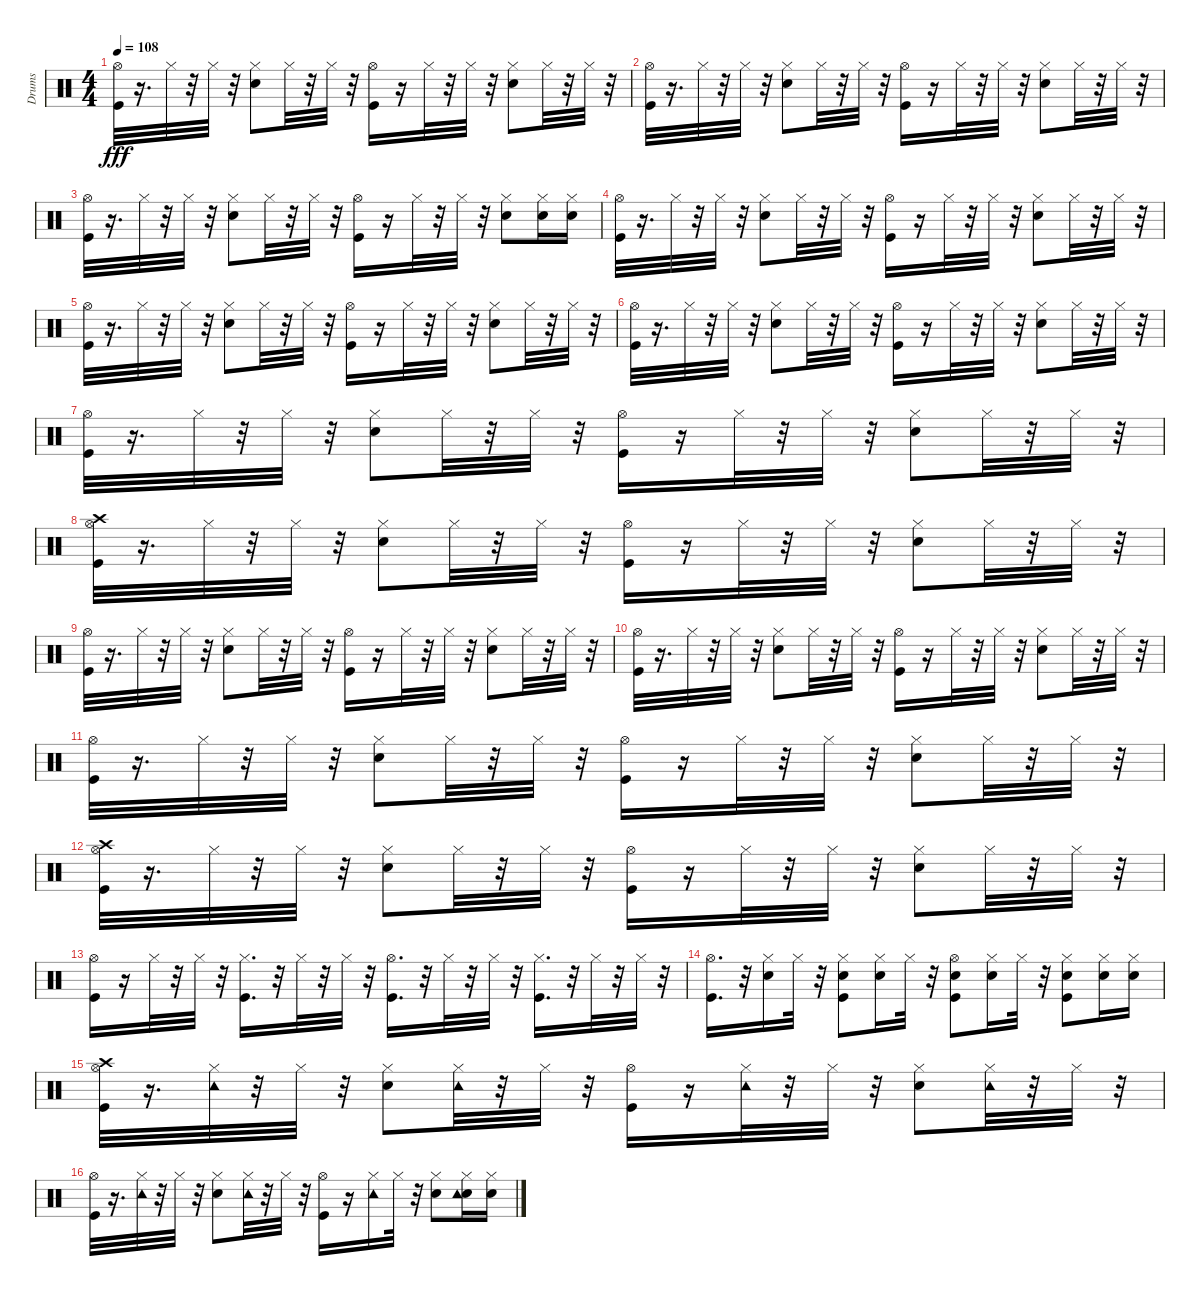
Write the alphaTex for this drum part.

\track ("Drums               " "Drums     ") {instrument percussion}
\staff {score}
\articulation defaults
\ts (4 4)
\tempo 108
\clef neutral
\ks c
("Kick (hit)" "Hi-Hat (open)").32{dy fff} r.16{d} "Hi-Hat (closed)".32 r.32 "Hi-Hat (closed)".32 r.32 ("Snare (hit) 2" "Hi-Hat (closed)").8 "Hi-Hat (closed)".32 r.32 "Hi-Hat (closed)".32 r.32 ("Kick (hit)" "Hi-Hat (open)").16 r.16 "Hi-Hat (closed)".32 r.32 "Hi-Hat (closed)".32 r.32 ("Snare (hit) 2" "Hi-Hat (closed)").8 "Hi-Hat (closed)".32 r.32 "Hi-Hat (closed)".32 r.32 |
("Kick (hit)" "Hi-Hat (open)").32 r.16{d} "Hi-Hat (closed)".32 r.32 "Hi-Hat (closed)".32 r.32 ("Snare (hit) 2" "Hi-Hat (closed)").8 "Hi-Hat (closed)".32 r.32 "Hi-Hat (closed)".32 r.32 ("Kick (hit)" "Hi-Hat (open)").16 r.16 "Hi-Hat (closed)".32 r.32 "Hi-Hat (closed)".32 r.32 ("Snare (hit) 2" "Hi-Hat (closed)").8 "Hi-Hat (closed)".32 r.32 "Hi-Hat (closed)".32 r.32 |
("Kick (hit)" "Hi-Hat (open)").32 r.16{d} "Hi-Hat (closed)".32 r.32 "Hi-Hat (closed)".32 r.32 ("Snare (hit) 2" "Hi-Hat (closed)").8 "Hi-Hat (closed)".32 r.32 "Hi-Hat (closed)".32 r.32 ("Kick (hit)" "Hi-Hat (open)").16 r.16 "Hi-Hat (closed)".32 r.32 "Hi-Hat (closed)".32 r.32 ("Snare (hit) 2" "Hi-Hat (closed)").8 ("Snare (hit) 2" "Hi-Hat (closed)").16 ("Snare (hit) 2" "Hi-Hat (closed)").16 |
("Kick (hit)" "Hi-Hat (open)").32 r.16{d} "Hi-Hat (closed)".32 r.32 "Hi-Hat (closed)".32 r.32 ("Snare (hit) 2" "Hi-Hat (closed)").8 "Hi-Hat (closed)".32 r.32 "Hi-Hat (closed)".32 r.32 ("Kick (hit)" "Hi-Hat (open)").16 r.16 "Hi-Hat (closed)".32 r.32 "Hi-Hat (closed)".32 r.32 ("Snare (hit) 2" "Hi-Hat (closed)").8 "Hi-Hat (closed)".32 r.32 "Hi-Hat (closed)".32 r.32 |
("Kick (hit)" "Hi-Hat (open)").32 r.16{d} "Hi-Hat (closed)".32 r.32 "Hi-Hat (closed)".32 r.32 ("Snare (hit) 2" "Hi-Hat (closed)").8 "Hi-Hat (closed)".32 r.32 "Hi-Hat (closed)".32 r.32 ("Kick (hit)" "Hi-Hat (open)").16 r.16 "Hi-Hat (closed)".32 r.32 "Hi-Hat (closed)".32 r.32 ("Snare (hit) 2" "Hi-Hat (closed)").8 "Hi-Hat (closed)".32 r.32 "Hi-Hat (closed)".32 r.32 |
("Kick (hit)" "Hi-Hat (open)").32 r.16{d} "Hi-Hat (closed)".32 r.32 "Hi-Hat (closed)".32 r.32 ("Snare (hit) 2" "Hi-Hat (closed)").8 "Hi-Hat (closed)".32 r.32 "Hi-Hat (closed)".32 r.32 ("Kick (hit)" "Hi-Hat (open)").16 r.16 "Hi-Hat (closed)".32 r.32 "Hi-Hat (closed)".32 r.32 ("Snare (hit) 2" "Hi-Hat (closed)").8 "Hi-Hat (closed)".32 r.32 "Hi-Hat (closed)".32 r.32 |
("Kick (hit)" "Hi-Hat (open)").32 r.16{d} "Hi-Hat (closed)".32 r.32 "Hi-Hat (closed)".32 r.32 ("Snare (hit) 2" "Hi-Hat (closed)").8 "Hi-Hat (closed)".32 r.32 "Hi-Hat (closed)".32 r.32 ("Kick (hit)" "Hi-Hat (open)").16 r.16 "Hi-Hat (closed)".32 r.32 "Hi-Hat (closed)".32 r.32 ("Snare (hit) 2" "Hi-Hat (closed)").8 "Hi-Hat (closed)".32 r.32 "Hi-Hat (closed)".32 r.32 |
("Kick (hit)" "Hi-Hat (open)" "Crash high (hit)").32 r.16{d} "Hi-Hat (closed)".32 r.32 "Hi-Hat (closed)".32 r.32 ("Snare (hit) 2" "Hi-Hat (closed)").8 "Hi-Hat (closed)".32 r.32 "Hi-Hat (closed)".32 r.32 ("Kick (hit)" "Hi-Hat (open)").16 r.16 "Hi-Hat (closed)".32 r.32 "Hi-Hat (closed)".32 r.32 ("Snare (hit) 2" "Hi-Hat (closed)").8 "Hi-Hat (closed)".32 r.32 "Hi-Hat (closed)".32 r.32 |
("Kick (hit)" "Hi-Hat (open)").32 r.16{d} "Hi-Hat (closed)".32 r.32 "Hi-Hat (closed)".32 r.32 ("Snare (hit) 2" "Hi-Hat (closed)").8 "Hi-Hat (closed)".32 r.32 "Hi-Hat (closed)".32 r.32 ("Kick (hit)" "Hi-Hat (open)").16 r.16 "Hi-Hat (closed)".32 r.32 "Hi-Hat (closed)".32 r.32 ("Snare (hit) 2" "Hi-Hat (closed)").8 "Hi-Hat (closed)".32 r.32 "Hi-Hat (closed)".32 r.32 |
("Kick (hit)" "Hi-Hat (open)").32 r.16{d} "Hi-Hat (closed)".32 r.32 "Hi-Hat (closed)".32 r.32 ("Snare (hit) 2" "Hi-Hat (closed)").8 "Hi-Hat (closed)".32 r.32 "Hi-Hat (closed)".32 r.32 ("Kick (hit)" "Hi-Hat (open)").16 r.16 "Hi-Hat (closed)".32 r.32 "Hi-Hat (closed)".32 r.32 ("Snare (hit) 2" "Hi-Hat (closed)").8 "Hi-Hat (closed)".32 r.32 "Hi-Hat (closed)".32 r.32 |
("Kick (hit)" "Hi-Hat (open)").32 r.16{d} "Hi-Hat (closed)".32 r.32 "Hi-Hat (closed)".32 r.32 ("Snare (hit) 2" "Hi-Hat (closed)").8 "Hi-Hat (closed)".32 r.32 "Hi-Hat (closed)".32 r.32 ("Kick (hit)" "Hi-Hat (open)").16 r.16 "Hi-Hat (closed)".32 r.32 "Hi-Hat (closed)".32 r.32 ("Snare (hit) 2" "Hi-Hat (closed)").8 "Hi-Hat (closed)".32 r.32 "Hi-Hat (closed)".32 r.32 |
("Kick (hit)" "Hi-Hat (open)" "Crash high (hit)").32 r.16{d} "Hi-Hat (closed)".32 r.32 "Hi-Hat (closed)".32 r.32 ("Snare (hit) 2" "Hi-Hat (closed)").8 "Hi-Hat (closed)".32 r.32 "Hi-Hat (closed)".32 r.32 ("Kick (hit)" "Hi-Hat (open)").16 r.16 "Hi-Hat (closed)".32 r.32 "Hi-Hat (closed)".32 r.32 ("Snare (hit) 2" "Hi-Hat (closed)").8 "Hi-Hat (closed)".32 r.32 "Hi-Hat (closed)".32 r.32 |
("Kick (hit)" "Hi-Hat (open)").16 r.16 "Hi-Hat (closed)".32 r.32 "Hi-Hat (closed)".32 r.32 ("Kick (hit)" "Hi-Hat (closed)").16{d} r.32 "Hi-Hat (closed)".32 r.32 "Hi-Hat (closed)".32 r.32 ("Kick (hit)" "Hi-Hat (open)").16{d} r.32 "Hi-Hat (closed)".32 r.32 "Hi-Hat (closed)".32 r.32 ("Kick (hit)" "Hi-Hat (closed)").16{d} r.32 "Hi-Hat (closed)".32 r.32 "Hi-Hat (closed)".32 r.32 |
("Kick (hit)" "Hi-Hat (open)").16{d} r.32 ("Snare (hit) 2" "Hi-Hat (closed)").16 "Hi-Hat (closed)".32 r.32 ("Kick (hit)" "Snare (hit) 2" "Hi-Hat (closed)").8 ("Snare (hit) 2" "Hi-Hat (closed)").16 "Hi-Hat (closed)".32 r.32 ("Kick (hit)" "Snare (hit) 2" "Hi-Hat (open)").8 ("Snare (hit) 2" "Hi-Hat (closed)").16 "Hi-Hat (closed)".32 r.32 ("Kick (hit)" "Snare (hit) 2" "Hi-Hat (closed)").8 ("Snare (hit) 2" "Hi-Hat (closed)").16 ("Snare (hit) 2" "Hi-Hat (closed)").16 |
("Kick (hit)" "Hi-Hat (open)" "Crash high (hit)").32 r.16{d} ("Hi-Hat (closed)" "Tambourine (hit)").32 r.32 "Hi-Hat (closed)".32 r.32 ("Snare (hit) 2" "Hi-Hat (closed)").8 ("Hi-Hat (closed)" "Tambourine (hit)").32 r.32 "Hi-Hat (closed)".32 r.32 ("Kick (hit)" "Hi-Hat (open)").16 r.16 ("Hi-Hat (closed)" "Tambourine (hit)").32 r.32 "Hi-Hat (closed)".32 r.32 ("Snare (hit) 2" "Hi-Hat (closed)").8 ("Hi-Hat (closed)" "Tambourine (hit)").32 r.32 "Hi-Hat (closed)".32 r.32 |
("Kick (hit)" "Hi-Hat (open)").32 r.16{d} ("Hi-Hat (closed)" "Tambourine (hit)").32 r.32 "Hi-Hat (closed)".32 r.32 ("Snare (hit) 2" "Hi-Hat (closed)").8 ("Hi-Hat (closed)" "Tambourine (hit)").32 r.32 "Hi-Hat (closed)".32 r.32 ("Kick (hit)" "Hi-Hat (open)").16 r.16 ("Hi-Hat (closed)" "Tambourine (hit)").16 "Hi-Hat (closed)".32 r.32 ("Snare (hit) 2" "Hi-Hat (closed)").8 ("Snare (hit) 2" "Hi-Hat (closed)" "Tambourine (hit)").16 ("Snare (hit) 2" "Hi-Hat (closed)").16
